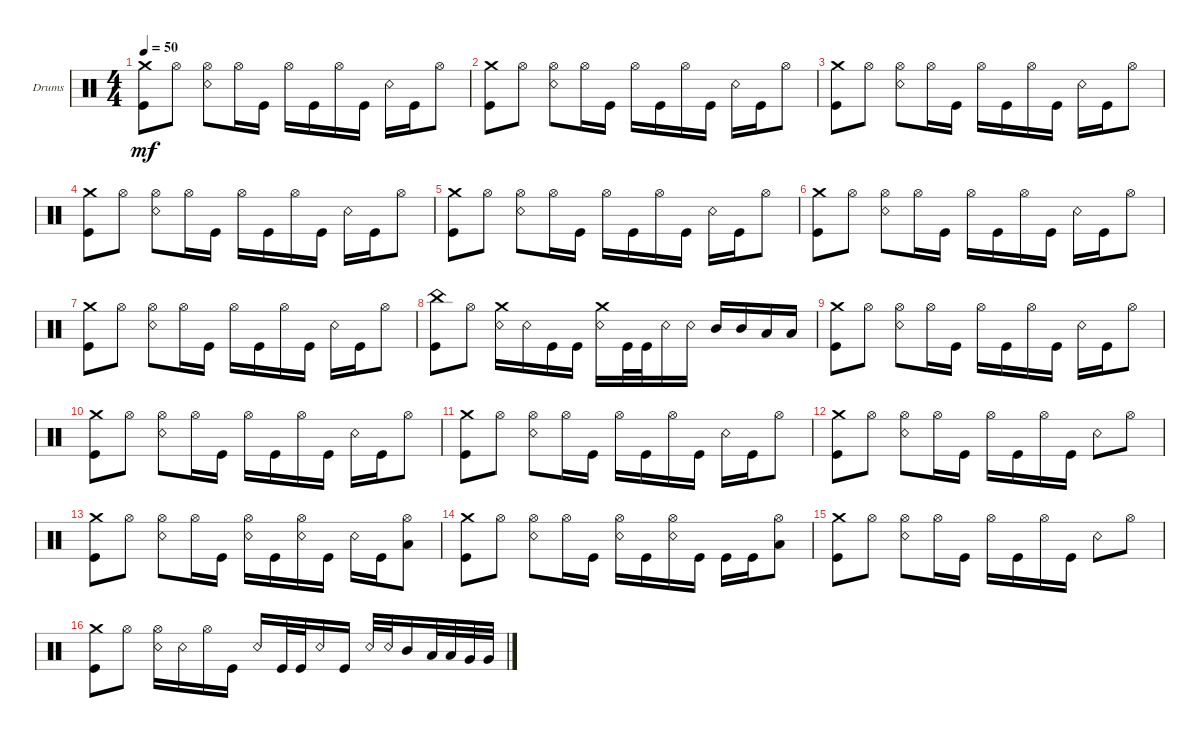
\defaultSystemsLayout 4
\bracketExtendMode groupsimilarinstruments
\firstSystemTrackNameOrientation horizontal
\otherSystemsTrackNameOrientation horizontal
\track ("Drumkit" "Drums") {instrument percussion}
\staff {score}
\articulation defaults
\ts (4 4)
\tempo 50
\clef neutral
\ks c
("Crash medium (hit)" "Kick (hit)").8{dy mf} "Hi-Hat (open)".8 ("Snare (rim shot)" "Hi-Hat (open)").8 "Hi-Hat (open)".16 "Kick (hit)".16 "Hi-Hat (open)".16 "Kick (hit)".16 "Hi-Hat (open)".16 "Kick (hit)".16 "Snare (rim shot)".16 "Kick (hit)".16 "Hi-Hat (open)".8 |
("Crash medium (hit)" "Kick (hit)").8 "Hi-Hat (open)".8 ("Snare (rim shot)" "Hi-Hat (open)").8 "Hi-Hat (open)".16 "Kick (hit)".16 "Hi-Hat (open)".16 "Kick (hit)".16 "Hi-Hat (open)".16 "Kick (hit)".16 "Snare (rim shot)".16 "Kick (hit)".16 "Hi-Hat (open)".8 |
("Crash medium (hit)" "Kick (hit)").8 "Hi-Hat (open)".8 ("Snare (rim shot)" "Hi-Hat (open)").8 "Hi-Hat (open)".16 "Kick (hit)".16 "Hi-Hat (open)".16 "Kick (hit)".16 "Hi-Hat (open)".16 "Kick (hit)".16 "Snare (rim shot)".16 "Kick (hit)".16 "Hi-Hat (open)".8 |
("Crash medium (hit)" "Kick (hit)").8 "Hi-Hat (open)".8 ("Snare (rim shot)" "Hi-Hat (open)").8 "Hi-Hat (open)".16 "Kick (hit)".16 "Hi-Hat (open)".16 "Kick (hit)".16 "Hi-Hat (open)".16 "Kick (hit)".16 "Snare (rim shot)".16 "Kick (hit)".16 "Hi-Hat (open)".8 |
("Crash medium (hit)" "Kick (hit)").8 "Hi-Hat (open)".8 ("Snare (rim shot)" "Hi-Hat (open)").8 "Hi-Hat (open)".16 "Kick (hit)".16 "Hi-Hat (open)".16 "Kick (hit)".16 "Hi-Hat (open)".16 "Kick (hit)".16 "Snare (rim shot)".16 "Kick (hit)".16 "Hi-Hat (open)".8 |
("Crash medium (hit)" "Kick (hit)").8 "Hi-Hat (open)".8 ("Snare (rim shot)" "Hi-Hat (open)").8 "Hi-Hat (open)".16 "Kick (hit)".16 "Hi-Hat (open)".16 "Kick (hit)".16 "Hi-Hat (open)".16 "Kick (hit)".16 "Snare (rim shot)".16 "Kick (hit)".16 "Hi-Hat (open)".8 |
("Crash medium (hit)" "Kick (hit)").8 "Hi-Hat (open)".8 ("Snare (rim shot)" "Hi-Hat (open)").8 "Hi-Hat (open)".16 "Kick (hit)".16 "Hi-Hat (open)".16 "Kick (hit)".16 "Hi-Hat (open)".16 "Kick (hit)".16 "Snare (rim shot)".16 "Kick (hit)".16 "Hi-Hat (open)".8 |
("Kick (hit)" "China (hit)").8 "Hi-Hat (open)".8 ("Snare (rim shot)" "Crash medium (hit)").16 "Snare (rim shot)".16 "Kick (hit)".16 "Kick (hit)".16 ("Snare (rim shot)" "Crash medium (hit)").16 "Kick (hit)".32 "Kick (hit)".32 "Snare (rim shot)".16 "Snare (rim shot)".16 "Mid Tom (hit)".16 "Mid Tom (hit)".16 "Low Tom (hit)".16 "Low Tom (hit)".16 |
("Crash medium (hit)" "Kick (hit)").8 "Hi-Hat (open)".8 ("Snare (rim shot)" "Hi-Hat (open)").8 "Hi-Hat (open)".16 "Kick (hit)".16 "Hi-Hat (open)".16 "Kick (hit)".16 "Hi-Hat (open)".16 "Kick (hit)".16 "Snare (rim shot)".16 "Kick (hit)".16 "Hi-Hat (open)".8 |
("Crash medium (hit)" "Kick (hit)").8 "Hi-Hat (open)".8 ("Snare (rim shot)" "Hi-Hat (open)").8 "Hi-Hat (open)".16 "Kick (hit)".16 "Hi-Hat (open)".16 "Kick (hit)".16 "Hi-Hat (open)".16 "Kick (hit)".16 "Snare (rim shot)".16 "Kick (hit)".16 "Hi-Hat (open)".8 |
("Crash medium (hit)" "Kick (hit)").8 "Hi-Hat (open)".8 ("Snare (rim shot)" "Hi-Hat (open)").8 "Hi-Hat (open)".16 "Kick (hit)".16 "Hi-Hat (open)".16 "Kick (hit)".16 "Hi-Hat (open)".16 "Kick (hit)".16 "Snare (rim shot)".16 "Kick (hit)".16 "Hi-Hat (open)".8 |
("Crash medium (hit)" "Kick (hit)").8 "Hi-Hat (open)".8 ("Snare (rim shot)" "Hi-Hat (open)").8 "Hi-Hat (open)".16 "Kick (hit)".16 "Hi-Hat (open)".16 "Kick (hit)".16 "Hi-Hat (open)".16 "Kick (hit)".16 "Snare (rim shot)".8 "Hi-Hat (open)".8 |
("Crash medium (hit)" "Kick (hit)").8 "Hi-Hat (open)".8 ("Hi-Hat (open)" "Snare (rim shot)").8 "Hi-Hat (open)".16 "Kick (hit)".16 ("Hi-Hat (open)" "Snare (rim shot)").16 "Kick (hit)".16 ("Hi-Hat (open)" "Snare (rim shot)").16 "Kick (hit)".16 "Snare (rim shot)".16 "Kick (hit)".16 ("Low Tom (hit)" "Hi-Hat (open)").8 |
("Crash medium (hit)" "Kick (hit)").8 "Hi-Hat (open)".8 ("Hi-Hat (open)" "Snare (rim shot)").8 "Hi-Hat (open)".16 "Kick (hit)".16 ("Hi-Hat (open)" "Snare (rim shot)").16 "Kick (hit)".16 ("Hi-Hat (open)" "Snare (rim shot)").16 "Kick (hit)".16 "Kick (hit)".16 "Kick (hit)".16 ("Low Tom (hit)" "Hi-Hat (open)").8 |
("Crash medium (hit)" "Kick (hit)").8 "Hi-Hat (open)".8 ("Snare (rim shot)" "Hi-Hat (open)").8 "Hi-Hat (open)".16 "Kick (hit)".16 "Hi-Hat (open)".16 "Kick (hit)".16 "Hi-Hat (open)".16 "Kick (hit)".16 "Snare (rim shot)".8 "Hi-Hat (open)".8 |
("Crash medium (hit)" "Kick (hit)").8 "Hi-Hat (open)".8 ("Snare (rim shot)" "Hi-Hat (open)").16 "Snare (rim shot)".16 "Hi-Hat (open)".16 "Kick (hit)".16 "Snare (rim shot)".16 "Kick (hit)".32 "Kick (hit)".32 "Snare (rim shot)".16 "Kick (hit)".16 "Snare (rim shot)".32 "Snare (rim shot)".32 "Mid Tom (hit)".16 "Low Tom (hit)".32 "Low Tom (hit)".32 "Very Low Tom (hit)".32 "Very Low Tom (hit)".32
